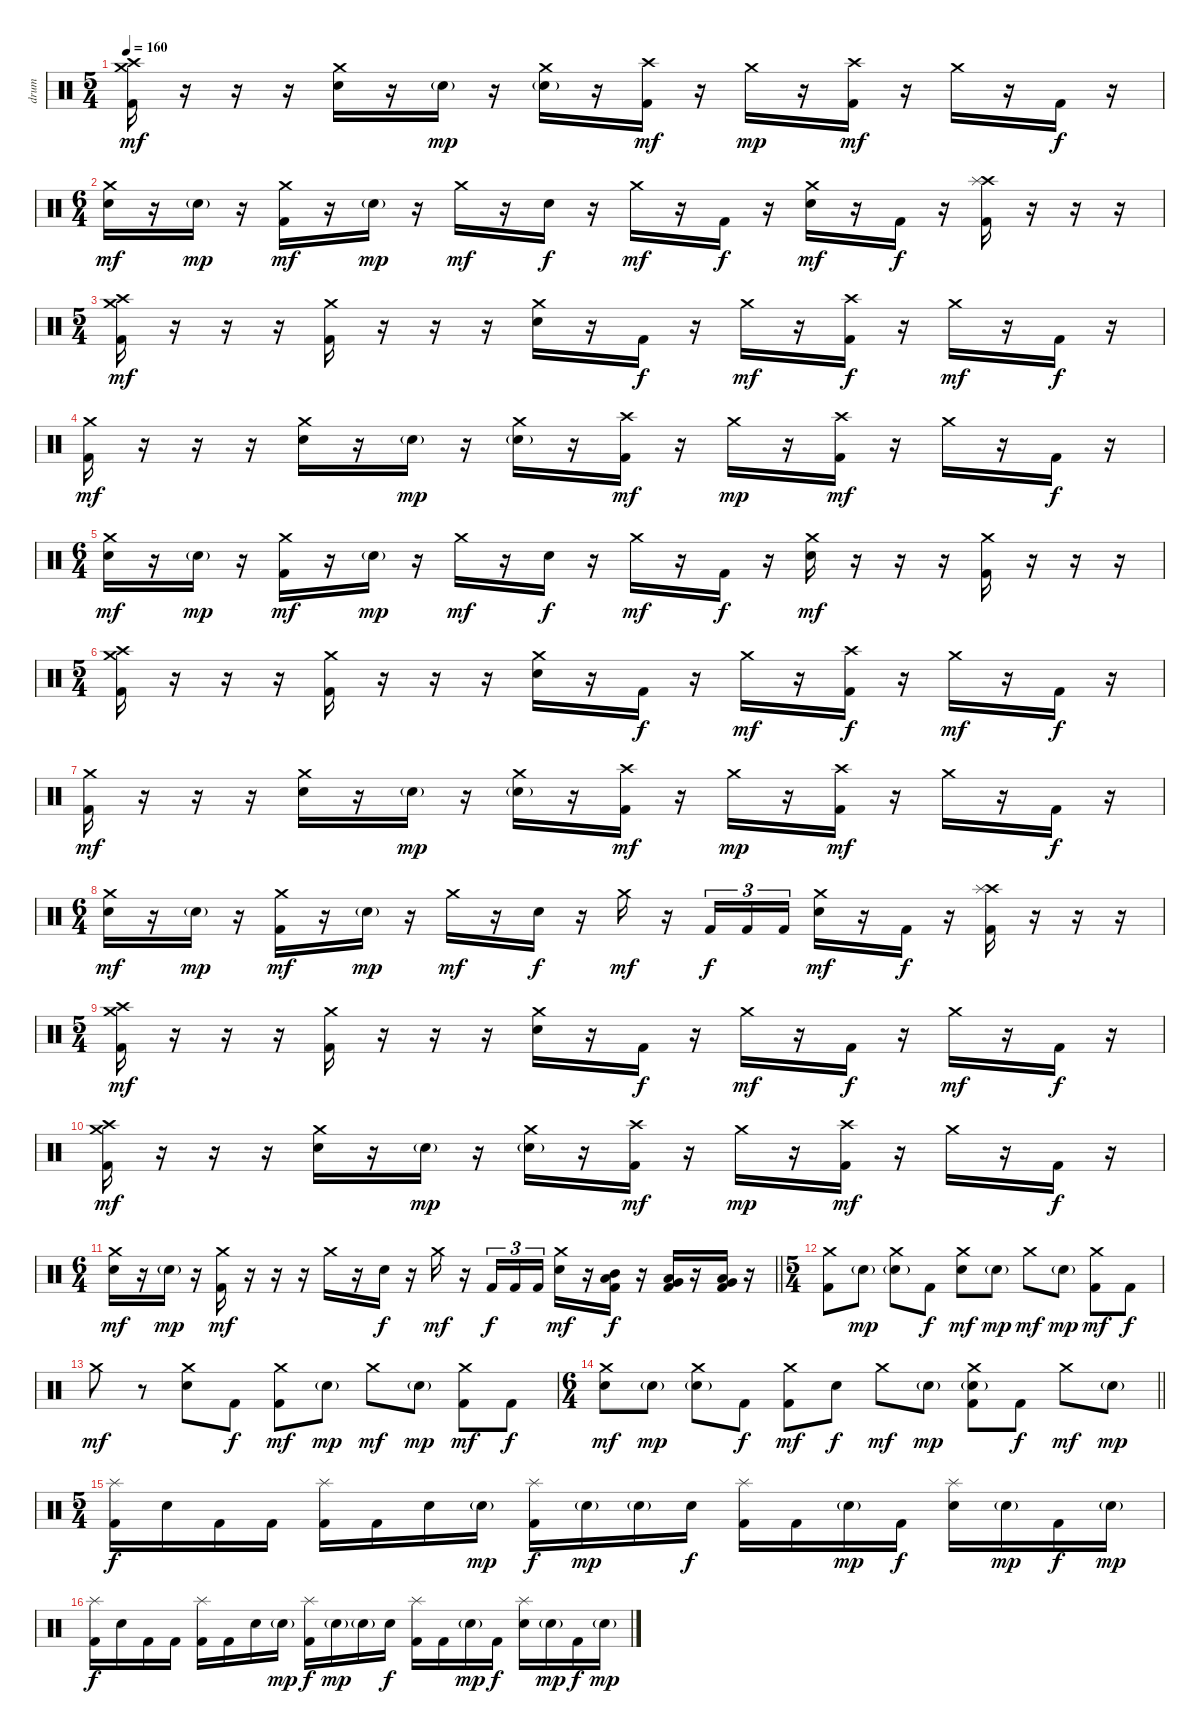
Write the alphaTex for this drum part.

\track ("drum" "drum") {instrument percussion}
\staff {score}
\articulation defaults
\ts (5 4)
\tempo 160
\clef neutral
\ks c
("Crash medium (hit)" "Crash high (hit)" "Kick (hit) 2").16{dy mf} r.16 r.16 r.16 ("Crash medium (hit)" "Electric Snare (hit)").16 r.16 "Electric Snare (hit)"{g}.16{dy mp} r.16 ("Crash medium (hit)" "Electric Snare (hit)"{g}).16 r.16 ("Crash high (hit)" "Kick (hit) 2").16{dy mf} r.16 "Crash medium (hit)".16{dy mp} r.16 ("Crash high (hit)" "Kick (hit) 2").16{dy mf} r.16 "Crash medium (hit)".16 r.16 "Kick (hit) 2".16{dy f} r.16 |
\ts (6 4)
("Crash medium (hit)" "Electric Snare (hit)").16{dy mf} r.16 "Electric Snare (hit)"{g}.16{dy mp} r.16 ("Crash medium (hit)" "Kick (hit) 2").16{dy mf} r.16 "Electric Snare (hit)"{g}.16{dy mp} r.16 "Crash medium (hit)".16{dy mf} r.16 "Electric Snare (hit)".16{dy f} r.16 "Crash medium (hit)".16{dy mf} r.16 "Kick (hit) 2".16{dy f} r.16 ("Crash medium (hit)" "Electric Snare (hit)").16{dy mf} r.16 "Kick (hit) 2".16{dy f} r.16 ("Crash high (hit)" "Splash (hit)" "Kick (hit) 2").16 r.16 r.16 r.16 |
\ts (5 4)
("Crash medium (hit)" "Crash high (hit)" "Kick (hit) 2").16{dy mf} r.16 r.16 r.16 ("Crash medium (hit)" "Kick (hit) 2").16 r.16 r.16 r.16 ("Crash medium (hit)" "Electric Snare (hit)").16 r.16 "Kick (hit) 2".16{dy f} r.16 "Crash medium (hit)".16{dy mf} r.16 ("Crash high (hit)" "Kick (hit) 2").16{dy f} r.16 "Crash medium (hit)".16{dy mf} r.16 "Kick (hit) 2".16{dy f} r.16 |
("Crash medium (hit)" "Kick (hit) 2").16{dy mf} r.16 r.16 r.16 ("Crash medium (hit)" "Electric Snare (hit)").16 r.16 "Electric Snare (hit)"{g}.16{dy mp} r.16 ("Crash medium (hit)" "Electric Snare (hit)"{g}).16 r.16 ("Crash high (hit)" "Kick (hit) 2").16{dy mf} r.16 "Crash medium (hit)".16{dy mp} r.16 ("Crash high (hit)" "Kick (hit) 2").16{dy mf} r.16 "Crash medium (hit)".16 r.16 "Kick (hit) 2".16{dy f} r.16 |
\ts (6 4)
("Crash medium (hit)" "Electric Snare (hit)").16{dy mf} r.16 "Electric Snare (hit)"{g}.16{dy mp} r.16 ("Crash medium (hit)" "Kick (hit) 2").16{dy mf} r.16 "Electric Snare (hit)"{g}.16{dy mp} r.16 "Crash medium (hit)".16{dy mf} r.16 "Electric Snare (hit)".16{dy f} r.16 "Crash medium (hit)".16{dy mf} r.16 "Kick (hit) 2".16{dy f} r.16 ("Crash medium (hit)" "Electric Snare (hit)").16{dy mf} r.16 r.16 r.16 ("Crash medium (hit)" "Kick (hit) 2").16 r.16 r.16 r.16 |
\ts (5 4)
("Crash medium (hit)" "Crash high (hit)" "Kick (hit) 2").16 r.16 r.16 r.16 ("Crash medium (hit)" "Kick (hit) 2").16 r.16 r.16 r.16 ("Crash medium (hit)" "Electric Snare (hit)").16 r.16 "Kick (hit) 2".16{dy f} r.16 "Crash medium (hit)".16{dy mf} r.16 ("Crash high (hit)" "Kick (hit) 2").16{dy f} r.16 "Crash medium (hit)".16{dy mf} r.16 "Kick (hit) 2".16{dy f} r.16 |
("Crash medium (hit)" "Kick (hit) 2").16{dy mf} r.16 r.16 r.16 ("Crash medium (hit)" "Electric Snare (hit)").16 r.16 "Electric Snare (hit)"{g}.16{dy mp} r.16 ("Crash medium (hit)" "Electric Snare (hit)"{g}).16 r.16 ("Crash high (hit)" "Kick (hit) 2").16{dy mf} r.16 "Crash medium (hit)".16{dy mp} r.16 ("Crash high (hit)" "Kick (hit) 2").16{dy mf} r.16 "Crash medium (hit)".16 r.16 "Kick (hit) 2".16{dy f} r.16 |
\ts (6 4)
("Crash medium (hit)" "Electric Snare (hit)").16{dy mf} r.16 "Electric Snare (hit)"{g}.16{dy mp} r.16 ("Crash medium (hit)" "Kick (hit) 2").16{dy mf} r.16 "Electric Snare (hit)"{g}.16{dy mp} r.16 "Crash medium (hit)".16{dy mf} r.16 "Electric Snare (hit)".16{dy f} r.16 "Crash medium (hit)".16{dy mf} r.16 "Kick (hit) 2".16{tu (3 2) dy f} "Kick (hit) 2".16{tu (3 2)} "Kick (hit) 2".16{tu (3 2) beam splitsecondary} ("Crash medium (hit)" "Electric Snare (hit)").16{dy mf} r.16 "Kick (hit) 2".16{dy f} r.16 ("Crash high (hit)" "Splash (hit)" "Kick (hit) 2").16 r.16 r.16 r.16 |
\ts (5 4)
("Crash medium (hit)" "Crash high (hit)" "Kick (hit) 2").16{dy mf} r.16 r.16 r.16 ("Crash medium (hit)" "Kick (hit) 2").16 r.16 r.16 r.16 ("Crash medium (hit)" "Electric Snare (hit)").16 r.16 "Kick (hit) 2".16{dy f} r.16 "Crash medium (hit)".16{dy mf} r.16 "Kick (hit) 2".16{dy f} r.16 "Crash medium (hit)".16{dy mf} r.16 "Kick (hit) 2".16{dy f} r.16 |
("Crash medium (hit)" "Crash high (hit)" "Kick (hit) 2").16{dy mf} r.16 r.16 r.16 ("Crash medium (hit)" "Electric Snare (hit)").16 r.16 "Electric Snare (hit)"{g}.16{dy mp} r.16 ("Crash medium (hit)" "Electric Snare (hit)"{g}).16 r.16 ("Crash high (hit)" "Kick (hit) 2").16{dy mf} r.16 "Crash medium (hit)".16{dy mp} r.16 ("Crash high (hit)" "Kick (hit) 2").16{dy mf} r.16 "Crash medium (hit)".16 r.16 "Kick (hit) 2".16{dy f} r.16 |
\ts (6 4)
\barLineRight lightlight
("Crash medium (hit)" "Electric Snare (hit)").16{dy mf} r.16 "Electric Snare (hit)"{g}.16{dy mp} r.16 ("Crash medium (hit)" "Kick (hit) 2").16{dy mf} r.16 r.16 r.16 "Crash medium (hit)".16 r.16 "Electric Snare (hit)".16{dy f} r.16 "Crash medium (hit)".16{dy mf} r.16 "Kick (hit) 2".16{tu (3 2) dy f} "Kick (hit) 2".16{tu (3 2)} "Kick (hit) 2".16{tu (3 2) beam splitsecondary} ("Crash medium (hit)" "Electric Snare (hit)").16{dy mf} r.16 ("Mid Tom (hit)" "Low Tom (hit)" "Kick (hit) 2").16{dy f} r.16 ("Low Tom (hit)" "Very Low Tom (hit)" "Kick (hit) 2").16 r.16 ("Very Low Tom (hit)" "Low Floor Tom (hit)" "Kick (hit) 2").16 r.16 |
\ts (5 4)
\section ("" "")
("Crash medium (hit)" "Kick (hit) 2").8 "Electric Snare (hit)"{g}.8{dy mp} ("Crash medium (hit)" "Electric Snare (hit)"{g}).8 "Kick (hit) 2".8{dy f} ("Crash medium (hit)" "Electric Snare (hit)").8{dy mf} "Electric Snare (hit)"{g}.8{dy mp} "Crash medium (hit)".8{dy mf} "Electric Snare (hit)"{g}.8{dy mp} ("Crash medium (hit)" "Kick (hit) 2").8{dy mf} "Kick (hit) 2".8{dy f} |
"Crash medium (hit)".8{dy mf} r.8 ("Crash medium (hit)" "Electric Snare (hit)").8 "Kick (hit) 2".8{dy f} ("Crash medium (hit)" "Kick (hit) 2").8{dy mf} "Electric Snare (hit)"{g}.8{dy mp} "Crash medium (hit)".8{dy mf} "Electric Snare (hit)"{g}.8{dy mp} ("Crash medium (hit)" "Kick (hit) 2").8{dy mf} "Kick (hit) 2".8{dy f} |
\ts (6 4)
\barLineRight lightlight
("Crash medium (hit)" "Electric Snare (hit)").8{dy mf} "Electric Snare (hit)"{g}.8{dy mp} ("Crash medium (hit)" "Electric Snare (hit)"{g}).8 "Kick (hit) 2".8{dy f} ("Crash medium (hit)" "Kick (hit) 2").8{dy mf} "Electric Snare (hit)".8{dy f} "Crash medium (hit)".8{dy mf} "Electric Snare (hit)"{g}.8{dy mp} ("Crash medium (hit)" "Electric Snare (hit)"{g} "Kick (hit) 2").8 "Kick (hit) 2".8{dy f} "Crash medium (hit)".8{dy mf} "Electric Snare (hit)"{g}.8{dy mp} |
\ts (5 4)
\section ("" "")
("Splash (hit)" "Kick (hit) 2").16{dy f} "Electric Snare (hit)".16 "Kick (hit) 2".16 "Kick (hit) 2".16 ("Splash (hit)" "Kick (hit) 2").16 "Kick (hit) 2".16 "Electric Snare (hit)".16 "Electric Snare (hit)"{g}.16{dy mp} ("Splash (hit)" "Kick (hit) 2").16{dy f} "Electric Snare (hit)"{g}.16{dy mp} "Electric Snare (hit)"{g}.16 "Electric Snare (hit)".16{dy f} ("Splash (hit)" "Kick (hit) 2").16 "Kick (hit) 2".16 "Electric Snare (hit)"{g}.16{dy mp} "Kick (hit) 2".16{dy f} ("Splash (hit)" "Electric Snare (hit)").16 "Electric Snare (hit)"{g}.16{dy mp} "Kick (hit) 2".16{dy f} "Electric Snare (hit)"{g}.16{dy mp} |
("Splash (hit)" "Kick (hit) 2").16{dy f} "Electric Snare (hit)".16 "Kick (hit) 2".16 "Kick (hit) 2".16 ("Splash (hit)" "Kick (hit) 2").16 "Kick (hit) 2".16 "Electric Snare (hit)".16 "Electric Snare (hit)"{g}.16{dy mp} ("Splash (hit)" "Kick (hit) 2").16{dy f} "Electric Snare (hit)"{g}.16{dy mp} "Electric Snare (hit)"{g}.16 "Electric Snare (hit)".16{dy f} ("Splash (hit)" "Kick (hit) 2").16 "Kick (hit) 2".16 "Electric Snare (hit)"{g}.16{dy mp} "Kick (hit) 2".16{dy f} ("Splash (hit)" "Electric Snare (hit)").16 "Electric Snare (hit)"{g}.16{dy mp} "Kick (hit) 2".16{dy f} "Electric Snare (hit)"{g}.16{dy mp}
